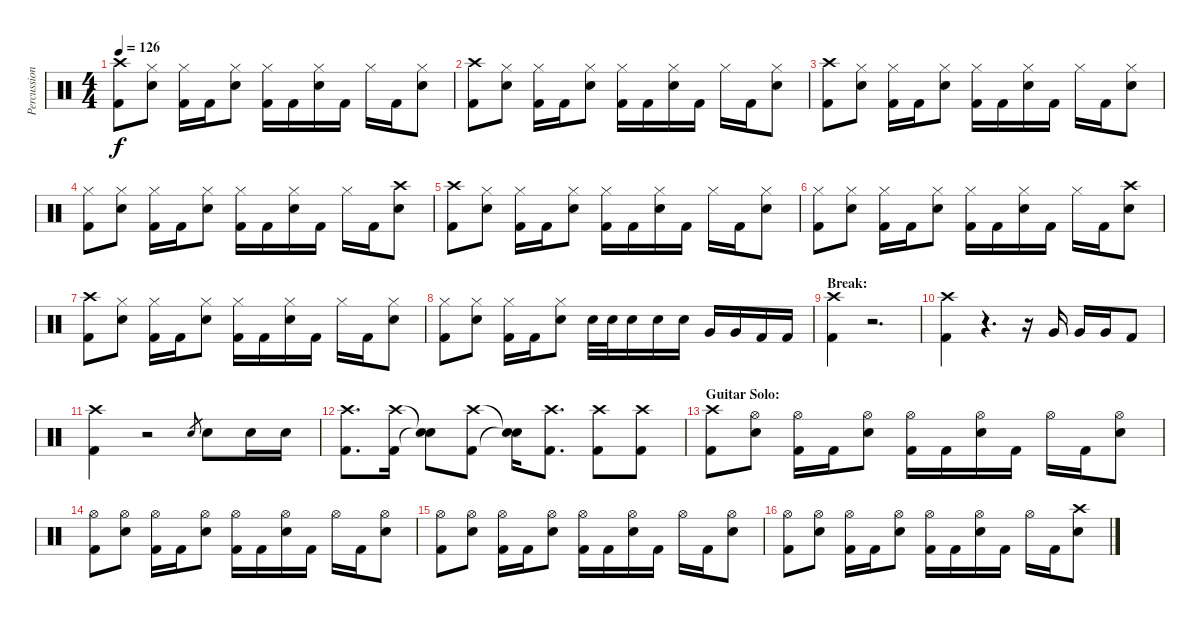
\track ("Percussion" "Percussion") {instrument percussion}
\staff {score}
\articulation defaults
\ts (4 4)
\tempo 126
\clef neutral
\ks c
("Crash high (hit)" "Kick (hit) 2").8{dy f} ("Hi-Hat (closed)" "Snare (hit) 2").8 ("Hi-Hat (closed)" "Kick (hit) 2").16 "Kick (hit) 2".16 ("Hi-Hat (closed)" "Snare (hit) 2").8 ("Hi-Hat (closed)" "Kick (hit) 2").16 "Kick (hit) 2".16 ("Hi-Hat (closed)" "Snare (hit) 2").16 "Kick (hit) 2".16 "Hi-Hat (closed)".16 "Kick (hit) 2".16 ("Hi-Hat (closed)" "Snare (hit) 2").8 |
("Crash high (hit)" "Kick (hit) 2").8 ("Hi-Hat (closed)" "Snare (hit) 2").8 ("Hi-Hat (closed)" "Kick (hit) 2").16 "Kick (hit) 2".16 ("Hi-Hat (closed)" "Snare (hit) 2").8 ("Hi-Hat (closed)" "Kick (hit) 2").16 "Kick (hit) 2".16 ("Hi-Hat (closed)" "Snare (hit) 2").16 "Kick (hit) 2".16 "Hi-Hat (closed)".16 "Kick (hit) 2".16 ("Hi-Hat (closed)" "Snare (hit) 2").8 |
("Crash high (hit)" "Kick (hit) 2").8 ("Hi-Hat (closed)" "Snare (hit) 2").8 ("Hi-Hat (closed)" "Kick (hit) 2").16 "Kick (hit) 2".16 ("Hi-Hat (closed)" "Snare (hit) 2").8 ("Hi-Hat (closed)" "Kick (hit) 2").16 "Kick (hit) 2".16 ("Hi-Hat (closed)" "Snare (hit) 2").16 "Kick (hit) 2".16 "Hi-Hat (closed)".16 "Kick (hit) 2".16 ("Hi-Hat (closed)" "Snare (hit) 2").8 |
("Hi-Hat (closed)" "Kick (hit) 2").8 ("Hi-Hat (closed)" "Snare (hit) 2").8 ("Hi-Hat (closed)" "Kick (hit) 2").16 "Kick (hit) 2".16 ("Hi-Hat (closed)" "Snare (hit) 2").8 ("Hi-Hat (closed)" "Kick (hit) 2").16 "Kick (hit) 2".16 ("Hi-Hat (closed)" "Snare (hit) 2").16 "Kick (hit) 2".16 "Hi-Hat (closed)".16 "Kick (hit) 2".16 ("Crash high (hit)" "Snare (hit) 2").8 |
("Crash high (hit)" "Kick (hit) 2").8 ("Hi-Hat (closed)" "Snare (hit) 2").8 ("Hi-Hat (closed)" "Kick (hit) 2").16 "Kick (hit) 2".16 ("Hi-Hat (closed)" "Snare (hit) 2").8 ("Hi-Hat (closed)" "Kick (hit) 2").16 "Kick (hit) 2".16 ("Hi-Hat (closed)" "Snare (hit) 2").16 "Kick (hit) 2".16 "Hi-Hat (closed)".16 "Kick (hit) 2".16 ("Hi-Hat (closed)" "Snare (hit) 2").8 |
("Hi-Hat (closed)" "Kick (hit) 2").8 ("Hi-Hat (closed)" "Snare (hit) 2").8 ("Hi-Hat (closed)" "Kick (hit) 2").16 "Kick (hit) 2".16 ("Hi-Hat (closed)" "Snare (hit) 2").8 ("Hi-Hat (closed)" "Kick (hit) 2").16 "Kick (hit) 2".16 ("Hi-Hat (closed)" "Snare (hit) 2").16 "Kick (hit) 2".16 "Hi-Hat (closed)".16 "Kick (hit) 2".16 ("Crash high (hit)" "Snare (hit) 2").8 |
("Crash high (hit)" "Kick (hit) 2").8 ("Hi-Hat (closed)" "Snare (hit) 2").8 ("Hi-Hat (closed)" "Kick (hit) 2").16 "Kick (hit) 2".16 ("Hi-Hat (closed)" "Snare (hit) 2").8 ("Hi-Hat (closed)" "Kick (hit) 2").16 "Kick (hit) 2".16 ("Hi-Hat (closed)" "Snare (hit) 2").16 "Kick (hit) 2".16 "Hi-Hat (closed)".16 "Kick (hit) 2".16 ("Hi-Hat (closed)" "Snare (hit) 2").8 |
("Hi-Hat (closed)" "Kick (hit) 2").8 ("Hi-Hat (closed)" "Snare (hit) 2").8 ("Hi-Hat (closed)" "Kick (hit) 2").16 "Kick (hit) 2".16 ("Hi-Hat (closed)" "Snare (hit) 2").8 "Snare (hit) 2".32 "Snare (hit) 2".32 "Snare (hit) 2".16 "Snare (hit) 2".16 "Snare (hit) 2".16 "Very Low Tom (hit)".16 "Very Low Tom (hit)".16 "Kick (hit) 2".16 "Kick (hit) 2".16 |
\section ("" "Break:")
("Crash high (hit)" "Kick (hit) 2").4 r.2{d} |
("Crash high (hit)" "Kick (hit) 2").4 r.4{d} r.16 "Very Low Tom (hit)".16 "Very Low Tom (hit)".16 "Very Low Tom (hit)".16 "Kick (hit) 2".8 |
("Crash high (hit)" "Kick (hit) 2").4 r.2 "Snare (hit) 2".8{gr} "Snare (hit) 2".8 "Snare (hit) 2".16 "Snare (hit) 2".16 |
("Crash high (hit)" "Kick (hit) 2").8{d} ("Crash high (hit)" "Kick (hit) 2").16 ("Snare (hit)"{t} "Snare (hit)"{t}).8 ("Crash high (hit)" "Kick (hit) 2").8 ("Snare (hit)"{t} "Snare (hit)"{t}).16 ("Crash high (hit)" "Kick (hit) 2").8{d} ("Crash high (hit)" "Kick (hit) 2").8 ("Crash high (hit)" "Kick (hit) 2").8 |
\section ("" "Guitar Solo:")
("Crash high (hit)" "Kick (hit) 2").8 ("Hi-Hat (open)" "Snare (hit) 2").8 ("Hi-Hat (open)" "Kick (hit) 2").16 "Kick (hit) 2".16 ("Hi-Hat (open)" "Snare (hit) 2").8 ("Hi-Hat (open)" "Kick (hit) 2").16 "Kick (hit) 2".16 ("Hi-Hat (open)" "Snare (hit) 2").16 "Kick (hit) 2".16 "Hi-Hat (open)".16 "Kick (hit) 2".16 ("Hi-Hat (open)" "Snare (hit) 2").8 |
("Hi-Hat (open)" "Kick (hit) 2").8 ("Hi-Hat (open)" "Snare (hit) 2").8 ("Hi-Hat (open)" "Kick (hit) 2").16 "Kick (hit) 2".16 ("Hi-Hat (open)" "Snare (hit) 2").8 ("Hi-Hat (open)" "Kick (hit) 2").16 "Kick (hit) 2".16 ("Hi-Hat (open)" "Snare (hit) 2").16 "Kick (hit) 2".16 "Hi-Hat (open)".16 "Kick (hit) 2".16 ("Hi-Hat (open)" "Snare (hit) 2").8 |
("Hi-Hat (open)" "Kick (hit) 2").8 ("Hi-Hat (open)" "Snare (hit) 2").8 ("Hi-Hat (open)" "Kick (hit) 2").16 "Kick (hit) 2".16 ("Hi-Hat (open)" "Snare (hit) 2").8 ("Hi-Hat (open)" "Kick (hit) 2").16 "Kick (hit) 2".16 ("Hi-Hat (open)" "Snare (hit) 2").16 "Kick (hit) 2".16 "Hi-Hat (open)".16 "Kick (hit) 2".16 ("Hi-Hat (open)" "Snare (hit) 2").8 |
("Hi-Hat (open)" "Kick (hit) 2").8 ("Hi-Hat (open)" "Snare (hit) 2").8 ("Hi-Hat (open)" "Kick (hit) 2").16 "Kick (hit) 2".16 ("Hi-Hat (open)" "Snare (hit) 2").8 ("Hi-Hat (open)" "Kick (hit) 2").16 "Kick (hit) 2".16 ("Hi-Hat (open)" "Snare (hit) 2").16 "Kick (hit) 2".16 "Hi-Hat (open)".16 "Kick (hit) 2".16 ("Crash high (hit)" "Snare (hit) 2").8
